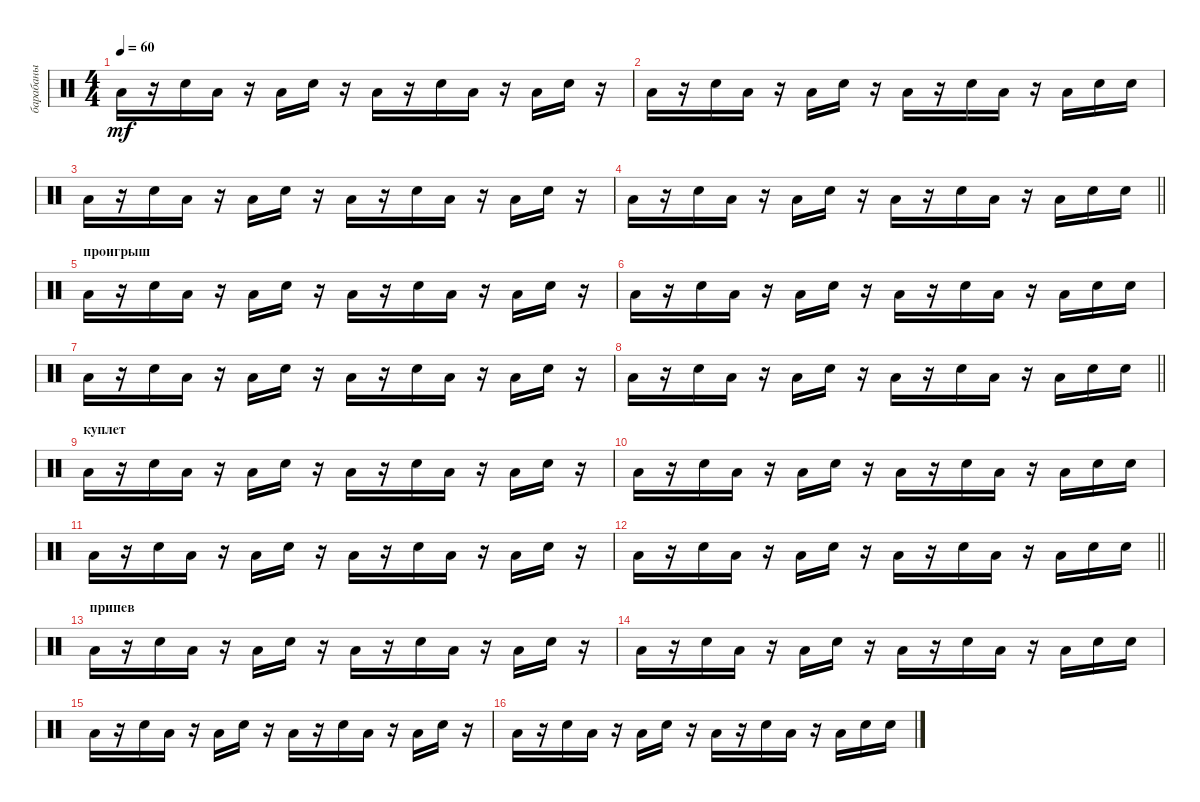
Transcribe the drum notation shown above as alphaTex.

\track ("барабаны" "барабаны") {instrument percussion}
\staff {score}
\articulation defaults
\ts (4 4)
\tempo 60
\clef neutral
\ks c "Low Floor Tom (hit)".16{dy mf}
r.16 "Snare (hit) 2".16 "Low Floor Tom (hit)".16 r.16 "Low Floor Tom (hit)".16 "Snare (hit) 2".16 r.16 "Low Floor Tom (hit)".16 r.16 "Snare (hit) 2".16 "Low Floor Tom (hit)".16 r.16 "Low Floor Tom (hit)".16 "Snare (hit) 2".16 r.16 |
"Low Floor Tom (hit)".16 r.16 "Snare (hit) 2".16 "Low Floor Tom (hit)".16 r.16 "Low Floor Tom (hit)".16 "Snare (hit) 2".16 r.16 "Low Floor Tom (hit)".16 r.16 "Snare (hit) 2".16 "Low Floor Tom (hit)".16 r.16 "Low Floor Tom (hit)".16 "Snare (hit) 2".16 "Snare (hit) 2".16 |
"Low Floor Tom (hit)".16 r.16 "Snare (hit) 2".16 "Low Floor Tom (hit)".16 r.16 "Low Floor Tom (hit)".16 "Snare (hit) 2".16 r.16 "Low Floor Tom (hit)".16 r.16 "Snare (hit) 2".16 "Low Floor Tom (hit)".16 r.16 "Low Floor Tom (hit)".16 "Snare (hit) 2".16 r.16 |
\barLineRight lightlight "Low Floor Tom (hit)".16
r.16 "Snare (hit) 2".16 "Low Floor Tom (hit)".16 r.16 "Low Floor Tom (hit)".16 "Snare (hit) 2".16 r.16 "Low Floor Tom (hit)".16 r.16 "Snare (hit) 2".16 "Low Floor Tom (hit)".16 r.16 "Low Floor Tom (hit)".16 "Snare (hit) 2".16 "Snare (hit) 2".16 |
\section ("" "проигрыш")
"Low Floor Tom (hit)".16 r.16 "Snare (hit) 2".16 "Low Floor Tom (hit)".16 r.16 "Low Floor Tom (hit)".16 "Snare (hit) 2".16 r.16 "Low Floor Tom (hit)".16 r.16 "Snare (hit) 2".16 "Low Floor Tom (hit)".16 r.16 "Low Floor Tom (hit)".16 "Snare (hit) 2".16 r.16 |
"Low Floor Tom (hit)".16 r.16 "Snare (hit) 2".16 "Low Floor Tom (hit)".16 r.16 "Low Floor Tom (hit)".16 "Snare (hit) 2".16 r.16 "Low Floor Tom (hit)".16 r.16 "Snare (hit) 2".16 "Low Floor Tom (hit)".16 r.16 "Low Floor Tom (hit)".16 "Snare (hit) 2".16 "Snare (hit) 2".16 |
"Low Floor Tom (hit)".16 r.16 "Snare (hit) 2".16 "Low Floor Tom (hit)".16 r.16 "Low Floor Tom (hit)".16 "Snare (hit) 2".16 r.16 "Low Floor Tom (hit)".16 r.16 "Snare (hit) 2".16 "Low Floor Tom (hit)".16 r.16 "Low Floor Tom (hit)".16 "Snare (hit) 2".16 r.16 |
\barLineRight lightlight "Low Floor Tom (hit)".16
r.16 "Snare (hit) 2".16 "Low Floor Tom (hit)".16 r.16 "Low Floor Tom (hit)".16 "Snare (hit) 2".16 r.16 "Low Floor Tom (hit)".16 r.16 "Snare (hit) 2".16 "Low Floor Tom (hit)".16 r.16 "Low Floor Tom (hit)".16 "Snare (hit) 2".16 "Snare (hit) 2".16 |
\section ("" "куплет")
"Low Floor Tom (hit)".16 r.16 "Snare (hit) 2".16 "Low Floor Tom (hit)".16 r.16 "Low Floor Tom (hit)".16 "Snare (hit) 2".16 r.16 "Low Floor Tom (hit)".16 r.16 "Snare (hit) 2".16 "Low Floor Tom (hit)".16 r.16 "Low Floor Tom (hit)".16 "Snare (hit) 2".16 r.16 |
"Low Floor Tom (hit)".16 r.16 "Snare (hit) 2".16 "Low Floor Tom (hit)".16 r.16 "Low Floor Tom (hit)".16 "Snare (hit) 2".16 r.16 "Low Floor Tom (hit)".16 r.16 "Snare (hit) 2".16 "Low Floor Tom (hit)".16 r.16 "Low Floor Tom (hit)".16 "Snare (hit) 2".16 "Snare (hit) 2".16 |
"Low Floor Tom (hit)".16 r.16 "Snare (hit) 2".16 "Low Floor Tom (hit)".16 r.16 "Low Floor Tom (hit)".16 "Snare (hit) 2".16 r.16 "Low Floor Tom (hit)".16 r.16 "Snare (hit) 2".16 "Low Floor Tom (hit)".16 r.16 "Low Floor Tom (hit)".16 "Snare (hit) 2".16 r.16 |
\barLineRight lightlight "Low Floor Tom (hit)".16
r.16 "Snare (hit) 2".16 "Low Floor Tom (hit)".16 r.16 "Low Floor Tom (hit)".16 "Snare (hit) 2".16 r.16 "Low Floor Tom (hit)".16 r.16 "Snare (hit) 2".16 "Low Floor Tom (hit)".16 r.16 "Low Floor Tom (hit)".16 "Snare (hit) 2".16 "Snare (hit) 2".16 |
\section ("" "припев")
"Low Floor Tom (hit)".16 r.16 "Snare (hit) 2".16 "Low Floor Tom (hit)".16 r.16 "Low Floor Tom (hit)".16 "Snare (hit) 2".16 r.16 "Low Floor Tom (hit)".16 r.16 "Snare (hit) 2".16 "Low Floor Tom (hit)".16 r.16 "Low Floor Tom (hit)".16 "Snare (hit) 2".16 r.16 |
"Low Floor Tom (hit)".16 r.16 "Snare (hit) 2".16 "Low Floor Tom (hit)".16 r.16 "Low Floor Tom (hit)".16 "Snare (hit) 2".16 r.16 "Low Floor Tom (hit)".16 r.16 "Snare (hit) 2".16 "Low Floor Tom (hit)".16 r.16 "Low Floor Tom (hit)".16 "Snare (hit) 2".16 "Snare (hit) 2".16 |
"Low Floor Tom (hit)".16 r.16 "Snare (hit) 2".16 "Low Floor Tom (hit)".16 r.16 "Low Floor Tom (hit)".16 "Snare (hit) 2".16 r.16 "Low Floor Tom (hit)".16 r.16 "Snare (hit) 2".16 "Low Floor Tom (hit)".16 r.16 "Low Floor Tom (hit)".16 "Snare (hit) 2".16 r.16 |
"Low Floor Tom (hit)".16 r.16 "Snare (hit) 2".16 "Low Floor Tom (hit)".16 r.16 "Low Floor Tom (hit)".16 "Snare (hit) 2".16 r.16 "Low Floor Tom (hit)".16 r.16 "Snare (hit) 2".16 "Low Floor Tom (hit)".16 r.16 "Low Floor Tom (hit)".16 "Snare (hit) 2".16 "Snare (hit) 2".16
